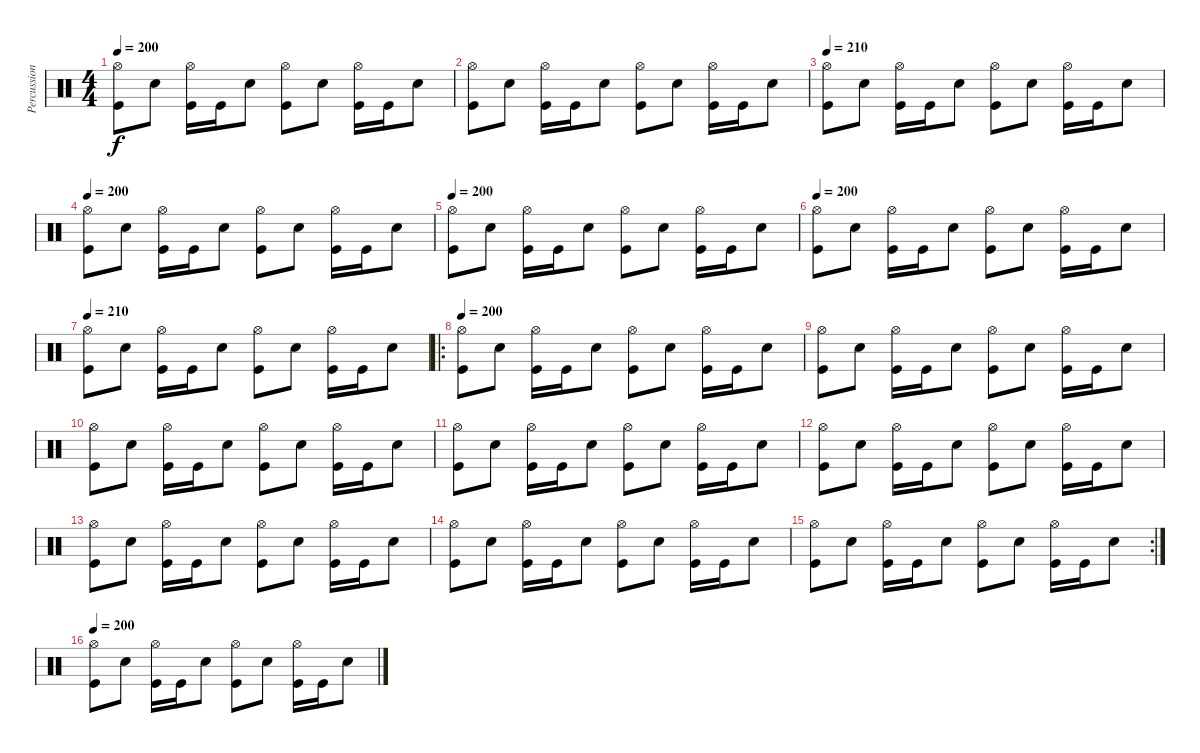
\track ("Percussion" "Percussion") {instrument percussion}
\staff {score}
\articulation defaults
\ts (4 4)
\tempo 200
\clef neutral
\ks c
("Hi-Hat (open)" "Kick (hit)").8{dy f} "Electric Snare (hit)".8 ("Hi-Hat (open)" "Kick (hit)").16 "Kick (hit)".16 "Electric Snare (hit)".8 ("Hi-Hat (open)" "Kick (hit)").8 "Electric Snare (hit)".8 ("Hi-Hat (open)" "Kick (hit)").16 "Kick (hit)".16 "Electric Snare (hit)".8 |
("Hi-Hat (open)" "Kick (hit)").8 "Electric Snare (hit)".8 ("Hi-Hat (open)" "Kick (hit)").16 "Kick (hit)".16 "Electric Snare (hit)".8 ("Hi-Hat (open)" "Kick (hit)").8 "Electric Snare (hit)".8 ("Hi-Hat (open)" "Kick (hit)").16 "Kick (hit)".16 "Electric Snare (hit)".8 |
\tempo 210
("Hi-Hat (open)" "Kick (hit)").8 "Electric Snare (hit)".8 ("Hi-Hat (open)" "Kick (hit)").16 "Kick (hit)".16 "Electric Snare (hit)".8 ("Hi-Hat (open)" "Kick (hit)").8 "Electric Snare (hit)".8 ("Hi-Hat (open)" "Kick (hit)").16 "Kick (hit)".16 "Electric Snare (hit)".8 |
\tempo 200
("Hi-Hat (open)" "Kick (hit)").8 "Electric Snare (hit)".8 ("Hi-Hat (open)" "Kick (hit)").16 "Kick (hit)".16 "Electric Snare (hit)".8 ("Hi-Hat (open)" "Kick (hit)").8 "Electric Snare (hit)".8 ("Hi-Hat (open)" "Kick (hit)").16 "Kick (hit)".16 "Electric Snare (hit)".8 |
\tempo 200
("Hi-Hat (open)" "Kick (hit)").8 "Electric Snare (hit)".8 ("Hi-Hat (open)" "Kick (hit)").16 "Kick (hit)".16 "Electric Snare (hit)".8 ("Hi-Hat (open)" "Kick (hit)").8 "Electric Snare (hit)".8 ("Hi-Hat (open)" "Kick (hit)").16 "Kick (hit)".16 "Electric Snare (hit)".8 |
\tempo 200
("Hi-Hat (open)" "Kick (hit)").8 "Electric Snare (hit)".8 ("Hi-Hat (open)" "Kick (hit)").16 "Kick (hit)".16 "Electric Snare (hit)".8 ("Hi-Hat (open)" "Kick (hit)").8 "Electric Snare (hit)".8 ("Hi-Hat (open)" "Kick (hit)").16 "Kick (hit)".16 "Electric Snare (hit)".8 |
\tempo 210
("Hi-Hat (open)" "Kick (hit)").8 "Electric Snare (hit)".8 ("Hi-Hat (open)" "Kick (hit)").16 "Kick (hit)".16 "Electric Snare (hit)".8 ("Hi-Hat (open)" "Kick (hit)").8 "Electric Snare (hit)".8 ("Hi-Hat (open)" "Kick (hit)").16 "Kick (hit)".16 "Electric Snare (hit)".8 |
\ro
\tempo 200
("Hi-Hat (open)" "Kick (hit)").8 "Electric Snare (hit)".8 ("Hi-Hat (open)" "Kick (hit)").16 "Kick (hit)".16 "Electric Snare (hit)".8 ("Hi-Hat (open)" "Kick (hit)").8 "Electric Snare (hit)".8 ("Hi-Hat (open)" "Kick (hit)").16 "Kick (hit)".16 "Electric Snare (hit)".8 |
("Hi-Hat (open)" "Kick (hit)").8 "Electric Snare (hit)".8 ("Hi-Hat (open)" "Kick (hit)").16 "Kick (hit)".16 "Electric Snare (hit)".8 ("Hi-Hat (open)" "Kick (hit)").8 "Electric Snare (hit)".8 ("Hi-Hat (open)" "Kick (hit)").16 "Kick (hit)".16 "Electric Snare (hit)".8 |
("Hi-Hat (open)" "Kick (hit)").8 "Electric Snare (hit)".8 ("Hi-Hat (open)" "Kick (hit)").16 "Kick (hit)".16 "Electric Snare (hit)".8 ("Hi-Hat (open)" "Kick (hit)").8 "Electric Snare (hit)".8 ("Hi-Hat (open)" "Kick (hit)").16 "Kick (hit)".16 "Electric Snare (hit)".8 |
("Hi-Hat (open)" "Kick (hit)").8 "Electric Snare (hit)".8 ("Hi-Hat (open)" "Kick (hit)").16 "Kick (hit)".16 "Electric Snare (hit)".8 ("Hi-Hat (open)" "Kick (hit)").8 "Electric Snare (hit)".8 ("Hi-Hat (open)" "Kick (hit)").16 "Kick (hit)".16 "Electric Snare (hit)".8 |
("Hi-Hat (open)" "Kick (hit)").8 "Electric Snare (hit)".8 ("Hi-Hat (open)" "Kick (hit)").16 "Kick (hit)".16 "Electric Snare (hit)".8 ("Hi-Hat (open)" "Kick (hit)").8 "Electric Snare (hit)".8 ("Hi-Hat (open)" "Kick (hit)").16 "Kick (hit)".16 "Electric Snare (hit)".8 |
("Hi-Hat (open)" "Kick (hit)").8 "Electric Snare (hit)".8 ("Hi-Hat (open)" "Kick (hit)").16 "Kick (hit)".16 "Electric Snare (hit)".8 ("Hi-Hat (open)" "Kick (hit)").8 "Electric Snare (hit)".8 ("Hi-Hat (open)" "Kick (hit)").16 "Kick (hit)".16 "Electric Snare (hit)".8 |
("Hi-Hat (open)" "Kick (hit)").8 "Electric Snare (hit)".8 ("Hi-Hat (open)" "Kick (hit)").16 "Kick (hit)".16 "Electric Snare (hit)".8 ("Hi-Hat (open)" "Kick (hit)").8 "Electric Snare (hit)".8 ("Hi-Hat (open)" "Kick (hit)").16 "Kick (hit)".16 "Electric Snare (hit)".8 |
\rc 2
("Hi-Hat (open)" "Kick (hit)").8 "Electric Snare (hit)".8 ("Hi-Hat (open)" "Kick (hit)").16 "Kick (hit)".16 "Electric Snare (hit)".8 ("Hi-Hat (open)" "Kick (hit)").8 "Electric Snare (hit)".8 ("Hi-Hat (open)" "Kick (hit)").16 "Kick (hit)".16 "Electric Snare (hit)".8 |
\tempo 200
("Hi-Hat (open)" "Kick (hit)").8 "Electric Snare (hit)".8 ("Hi-Hat (open)" "Kick (hit)").16 "Kick (hit)".16 "Electric Snare (hit)".8 ("Hi-Hat (open)" "Kick (hit)").8 "Electric Snare (hit)".8 ("Hi-Hat (open)" "Kick (hit)").16 "Kick (hit)".16 "Electric Snare (hit)".8
